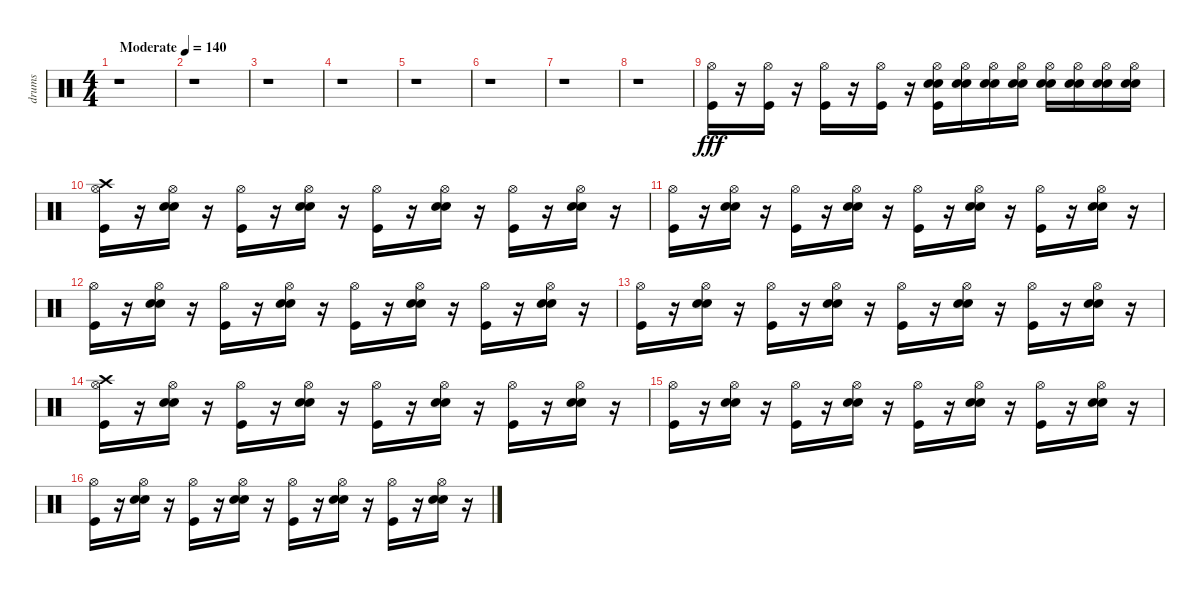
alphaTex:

\track ("drums" "drums") {instrument percussion}
\staff {score}
\articulation defaults
\ts (4 4)
\tempo (140 "Moderate")
\clef neutral
\ks c
r.1{dy fff} |
r.1 |
r.1 |
r.1 |
r.1 |
r.1 |
r.1 |
r.1 |
("Hi-Hat (open)" "Kick (hit)").16 r.16 ("Kick (hit)" "Hi-Hat (open)").16 r.16 ("Kick (hit)" "Hi-Hat (open)").16 r.16 ("Kick (hit)" "Hi-Hat (open)").16 r.16 ("Kick (hit)" "Snare (hit) 2" "Hi-Hat (open)" "Electric Snare (hit)").16 ("Snare (hit) 2" "Hi-Hat (open)" "Electric Snare (hit)").16 ("Snare (hit) 2" "Hi-Hat (open)" "Electric Snare (hit)").16 ("Snare (hit) 2" "Hi-Hat (open)" "Electric Snare (hit)").16 ("Snare (hit) 2" "Hi-Hat (open)" "Electric Snare (hit)").16 ("Snare (hit) 2" "Hi-Hat (open)" "Electric Snare (hit)").16 ("Snare (hit) 2" "Hi-Hat (open)" "Electric Snare (hit)").16 ("Snare (hit) 2" "Hi-Hat (open)" "Electric Snare (hit)").16 |
("Kick (hit)" "Hi-Hat (open)" "Crash high (hit)").16 r.16 ("Snare (hit) 2" "Electric Snare (hit)" "Hi-Hat (open)").16 r.16 ("Hi-Hat (open)" "Kick (hit)").16 r.16 ("Hi-Hat (open)" "Snare (hit) 2" "Electric Snare (hit)").16 r.16 ("Hi-Hat (open)" "Kick (hit)").16 r.16 ("Hi-Hat (open)" "Snare (hit) 2" "Electric Snare (hit)").16 r.16 ("Hi-Hat (open)" "Kick (hit)").16 r.16 ("Hi-Hat (open)" "Snare (hit) 2" "Electric Snare (hit)").16 r.16 |
("Hi-Hat (open)" "Kick (hit)").16 r.16 ("Snare (hit) 2" "Electric Snare (hit)" "Hi-Hat (open)").16 r.16 ("Hi-Hat (open)" "Kick (hit)").16 r.16 ("Hi-Hat (open)" "Snare (hit) 2" "Electric Snare (hit)").16 r.16 ("Hi-Hat (open)" "Kick (hit)").16 r.16 ("Hi-Hat (open)" "Snare (hit) 2" "Electric Snare (hit)").16 r.16 ("Hi-Hat (open)" "Kick (hit)").16 r.16 ("Hi-Hat (open)" "Snare (hit) 2" "Electric Snare (hit)").16 r.16 |
("Hi-Hat (open)" "Kick (hit)").16 r.16 ("Snare (hit) 2" "Electric Snare (hit)" "Hi-Hat (open)").16 r.16 ("Hi-Hat (open)" "Kick (hit)").16 r.16 ("Hi-Hat (open)" "Snare (hit) 2" "Electric Snare (hit)").16 r.16 ("Hi-Hat (open)" "Kick (hit)").16 r.16 ("Hi-Hat (open)" "Snare (hit) 2" "Electric Snare (hit)").16 r.16 ("Hi-Hat (open)" "Kick (hit)").16 r.16 ("Hi-Hat (open)" "Snare (hit) 2" "Electric Snare (hit)").16 r.16 |
("Hi-Hat (open)" "Kick (hit)").16 r.16 ("Snare (hit) 2" "Electric Snare (hit)" "Hi-Hat (open)").16 r.16 ("Hi-Hat (open)" "Kick (hit)").16 r.16 ("Hi-Hat (open)" "Snare (hit) 2" "Electric Snare (hit)").16 r.16 ("Hi-Hat (open)" "Kick (hit)").16 r.16 ("Hi-Hat (open)" "Snare (hit) 2" "Electric Snare (hit)").16 r.16 ("Hi-Hat (open)" "Kick (hit)").16 r.16 ("Hi-Hat (open)" "Snare (hit) 2" "Electric Snare (hit)").16 r.16 |
("Hi-Hat (open)" "Kick (hit)" "Crash high (hit)").16 r.16 ("Snare (hit) 2" "Electric Snare (hit)" "Hi-Hat (open)").16 r.16 ("Hi-Hat (open)" "Kick (hit)").16 r.16 ("Hi-Hat (open)" "Snare (hit) 2" "Electric Snare (hit)").16 r.16 ("Hi-Hat (open)" "Kick (hit)").16 r.16 ("Hi-Hat (open)" "Snare (hit) 2" "Electric Snare (hit)").16 r.16 ("Hi-Hat (open)" "Kick (hit)").16 r.16 ("Hi-Hat (open)" "Snare (hit) 2" "Electric Snare (hit)").16 r.16 |
("Hi-Hat (open)" "Kick (hit)").16 r.16 ("Snare (hit) 2" "Electric Snare (hit)" "Hi-Hat (open)").16 r.16 ("Hi-Hat (open)" "Kick (hit)").16 r.16 ("Hi-Hat (open)" "Snare (hit) 2" "Electric Snare (hit)").16 r.16 ("Hi-Hat (open)" "Kick (hit)").16 r.16 ("Hi-Hat (open)" "Snare (hit) 2" "Electric Snare (hit)").16 r.16 ("Hi-Hat (open)" "Kick (hit)").16 r.16 ("Hi-Hat (open)" "Snare (hit) 2" "Electric Snare (hit)").16 r.16 |
("Kick (hit)" "Hi-Hat (open)").16 r.16 ("Snare (hit) 2" "Electric Snare (hit)" "Hi-Hat (open)").16 r.16 ("Hi-Hat (open)" "Kick (hit)").16 r.16 ("Hi-Hat (open)" "Snare (hit) 2" "Electric Snare (hit)").16 r.16 ("Hi-Hat (open)" "Kick (hit)").16 r.16 ("Hi-Hat (open)" "Snare (hit) 2" "Electric Snare (hit)").16 r.16 ("Hi-Hat (open)" "Kick (hit)").16 r.16 ("Hi-Hat (open)" "Snare (hit) 2" "Electric Snare (hit)").16 r.16
